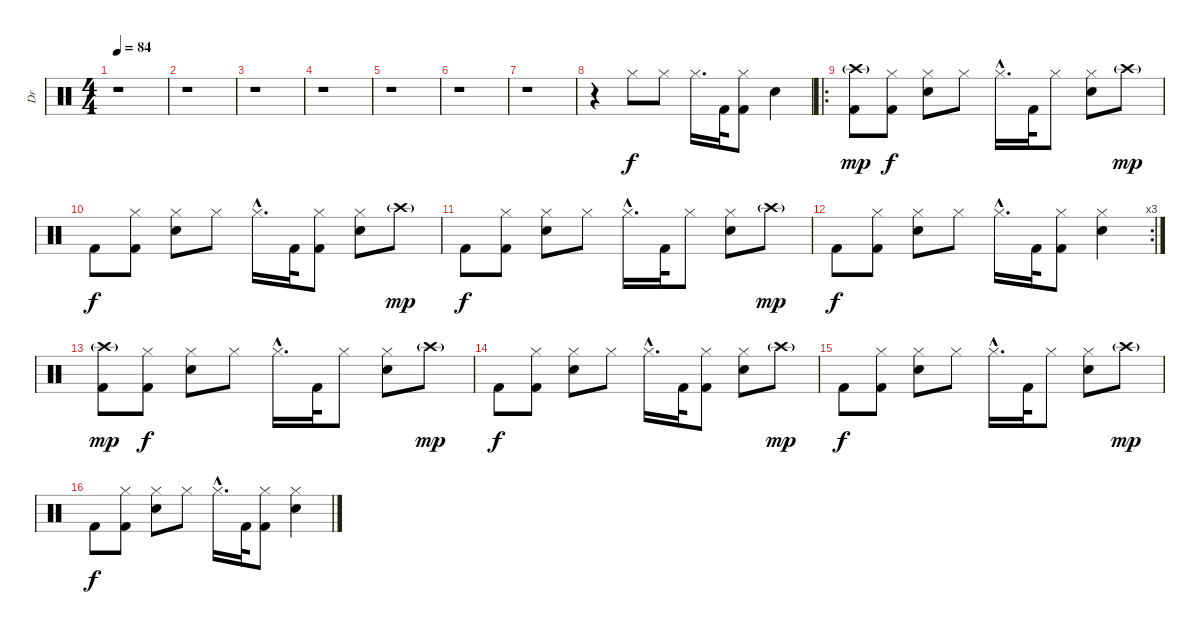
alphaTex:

\track ("Dr" "Dr") {instrument percussion}
\staff {score}
\articulation defaults
\ts (4 4)
\tempo 84
\clef neutral
\ks c
r.1{dy f} |
r.1 |
r.1 |
r.1 |
r.1 |
r.1 |
r.1 |
r.4 "Hi-Hat (closed)".8 "Hi-Hat (closed)".8 "Hi-Hat (closed)".16{d} "Kick (hit) 2".32 ("Hi-Hat (closed)" "Kick (hit) 2").8 "Electric Snare (hit)".4 |
\ro
("Crash high (hit)"{g} "Kick (hit) 2").8{dy mp} ("Hi-Hat (closed)" "Kick (hit) 2").8{dy f} ("Hi-Hat (closed)" "Electric Snare (hit)").8 "Hi-Hat (closed)".8 "Hi-Hat (closed)"{hac}.16{d} "Kick (hit) 2".32 "Hi-Hat (closed)".8 ("Hi-Hat (closed)" "Electric Snare (hit)").8 "Crash high (hit)"{g}.8{dy mp} |
"Kick (hit) 2".8{dy f} ("Hi-Hat (closed)" "Kick (hit) 2").8 ("Hi-Hat (closed)" "Electric Snare (hit)").8 "Hi-Hat (closed)".8 "Hi-Hat (closed)"{hac}.16{d} "Kick (hit) 2".32 ("Hi-Hat (closed)" "Kick (hit) 2").8 ("Hi-Hat (closed)" "Electric Snare (hit)").8 "Crash high (hit)"{g}.8{dy mp} |
"Kick (hit) 2".8{dy f} ("Hi-Hat (closed)" "Kick (hit) 2").8 ("Hi-Hat (closed)" "Electric Snare (hit)").8 "Hi-Hat (closed)".8 "Hi-Hat (closed)"{hac}.16{d} "Kick (hit) 2".32 "Hi-Hat (closed)".8 ("Hi-Hat (closed)" "Electric Snare (hit)").8 "Crash high (hit)"{g}.8{dy mp} |
\rc 3 "Kick (hit) 2".8{dy f}
("Hi-Hat (closed)" "Kick (hit) 2").8 ("Hi-Hat (closed)" "Electric Snare (hit)").8 "Hi-Hat (closed)".8 "Hi-Hat (closed)"{hac}.16{d} "Kick (hit) 2".32 ("Hi-Hat (closed)" "Kick (hit) 2").8 ("Hi-Hat (closed)" "Electric Snare (hit)").4 |
("Crash high (hit)"{g} "Kick (hit) 2").8{dy mp} ("Hi-Hat (closed)" "Kick (hit) 2").8{dy f} ("Hi-Hat (closed)" "Electric Snare (hit)").8 "Hi-Hat (closed)".8 "Hi-Hat (closed)"{hac}.16{d} "Kick (hit) 2".32 "Hi-Hat (closed)".8 ("Hi-Hat (closed)" "Electric Snare (hit)").8 "Crash high (hit)"{g}.8{dy mp} |
"Kick (hit) 2".8{dy f} ("Hi-Hat (closed)" "Kick (hit) 2").8 ("Hi-Hat (closed)" "Electric Snare (hit)").8 "Hi-Hat (closed)".8 "Hi-Hat (closed)"{hac}.16{d} "Kick (hit) 2".32 ("Hi-Hat (closed)" "Kick (hit) 2").8 ("Hi-Hat (closed)" "Electric Snare (hit)").8 "Crash high (hit)"{g}.8{dy mp} |
"Kick (hit) 2".8{dy f} ("Hi-Hat (closed)" "Kick (hit) 2").8 ("Hi-Hat (closed)" "Electric Snare (hit)").8 "Hi-Hat (closed)".8 "Hi-Hat (closed)"{hac}.16{d} "Kick (hit) 2".32 "Hi-Hat (closed)".8 ("Hi-Hat (closed)" "Electric Snare (hit)").8 "Crash high (hit)"{g}.8{dy mp} |
"Kick (hit) 2".8{dy f} ("Hi-Hat (closed)" "Kick (hit) 2").8 ("Hi-Hat (closed)" "Electric Snare (hit)").8 "Hi-Hat (closed)".8 "Hi-Hat (closed)"{hac}.16{d} "Kick (hit) 2".32 ("Hi-Hat (closed)" "Kick (hit) 2").8 ("Hi-Hat (closed)" "Electric Snare (hit)").4
